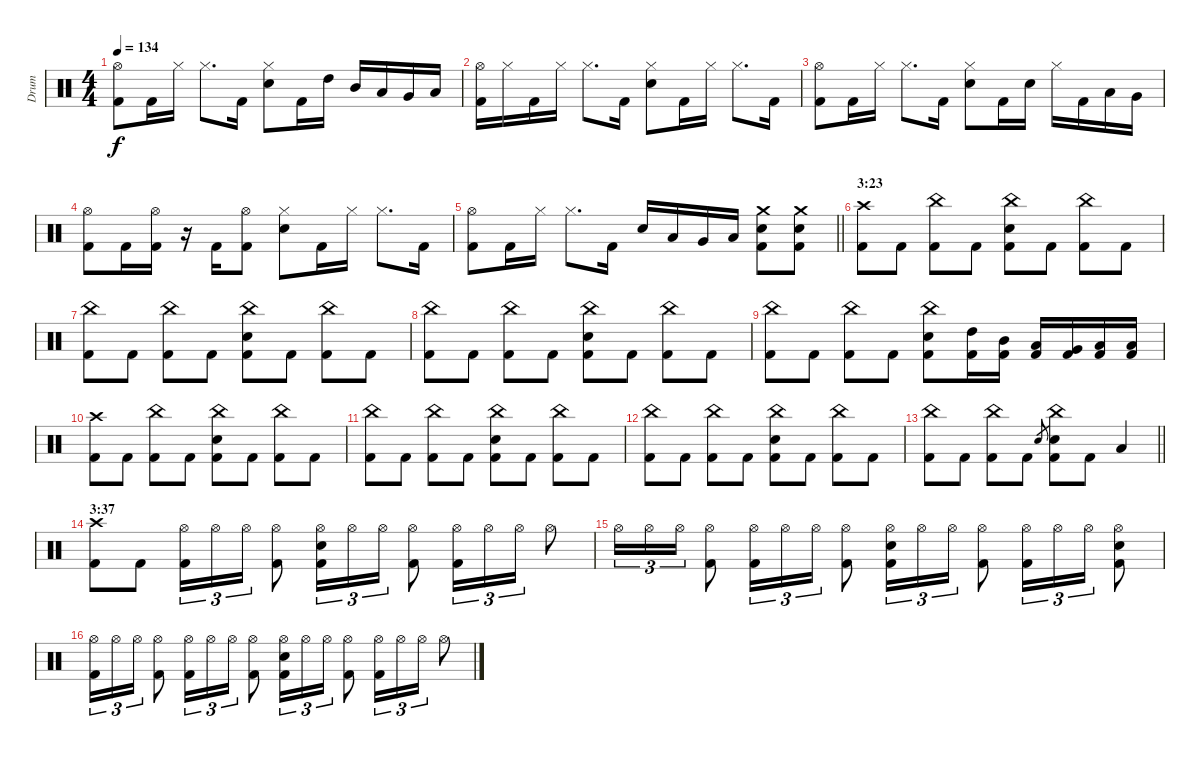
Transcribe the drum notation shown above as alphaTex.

\track ("Drum" "Drum") {instrument percussion}
\staff {score}
\articulation defaults
\ts (4 4)
\tempo 134
\clef neutral
\ks c
("Hi-Hat (open)" "Kick (hit) 2").8{dy f} "Kick (hit) 2".16 "Hi-Hat (closed)".16 "Hi-Hat (closed)".8{d} "Kick (hit) 2".16 ("Hi-Hat (closed)" "Electric Snare (hit)").8 "Kick (hit) 2".16 "High Tom (hit)".16 "Mid Tom (hit)".16 "Low Tom (hit)".16 "Very Low Tom (hit)".16 "Low Floor Tom (hit)".16 |
("Hi-Hat (open)" "Kick (hit) 2").16 "Hi-Hat (closed)".16 "Kick (hit) 2".16 "Hi-Hat (closed)".16 "Hi-Hat (closed)".8{d} "Kick (hit) 2".16 ("Hi-Hat (closed)" "Electric Snare (hit)").8 "Kick (hit) 2".16 "Hi-Hat (closed)".16 "Hi-Hat (closed)".8{d} "Kick (hit) 2".16 |
("Hi-Hat (open)" "Kick (hit) 2").8 "Kick (hit) 2".16 "Hi-Hat (closed)".16 "Hi-Hat (closed)".8{d} "Kick (hit) 2".16 ("Hi-Hat (closed)" "Electric Snare (hit)").8 "Kick (hit) 2".16 "Electric Snare (hit)".16 "Hi-Hat (closed)".16 "Kick (hit) 2".16 "Low Tom (hit)".16 "Very Low Tom (hit)".16 |
("Hi-Hat (open)" "Kick (hit) 2").8 "Kick (hit) 2".16 ("Hi-Hat (open)" "Kick (hit) 2").16 r.16 "Kick (hit) 2".16 ("Hi-Hat (open)" "Kick (hit) 2").8 ("Hi-Hat (closed)" "Electric Snare (hit)").8 "Kick (hit) 2".16 "Hi-Hat (closed)".16 "Hi-Hat (closed)".8{d} "Kick (hit) 2".16 |
\barLineRight lightlight
("Hi-Hat (open)" "Kick (hit) 2").8 "Kick (hit) 2".16 "Hi-Hat (closed)".16 "Hi-Hat (closed)".8{d} "Kick (hit) 2".16 "Electric Snare (hit)".16{volume 11} "Low Tom (hit)".16 "Very Low Tom (hit)".16 "Low Floor Tom (hit)".16 ("Crash medium (hit)" "Electric Snare (hit)" "Kick (hit) 2").8 ("Crash medium (hit)" "Electric Snare (hit)" "Kick (hit) 2").8 |
\section ("" "3:23")
("Crash high (hit)" "Kick (hit) 2").8 "Kick (hit) 2".8 ("China (hit)" "Kick (hit) 2").8 "Kick (hit) 2".8 ("China (hit)" "Electric Snare (hit)" "Kick (hit) 2").8 "Kick (hit) 2".8 ("China (hit)" "Kick (hit) 2").8 "Kick (hit) 2".8 |
("China (hit)" "Kick (hit) 2").8 "Kick (hit) 2".8 ("China (hit)" "Kick (hit) 2").8 "Kick (hit) 2".8 ("China (hit)" "Electric Snare (hit)" "Kick (hit) 2").8 "Kick (hit) 2".8 ("China (hit)" "Kick (hit) 2").8 "Kick (hit) 2".8 |
("China (hit)" "Kick (hit) 2").8 "Kick (hit) 2".8 ("China (hit)" "Kick (hit) 2").8 "Kick (hit) 2".8 ("China (hit)" "Electric Snare (hit)" "Kick (hit) 2").8 "Kick (hit) 2".8 ("China (hit)" "Kick (hit) 2").8 "Kick (hit) 2".8 |
("China (hit)" "Kick (hit) 2").8 "Kick (hit) 2".8 ("China (hit)" "Kick (hit) 2").8 "Kick (hit) 2".8 ("China (hit)" "Electric Snare (hit)" "Kick (hit) 2").8 ("High Tom (hit)" "Kick (hit) 2").16 ("Mid Tom (hit)" "Kick (hit) 2").16 ("Low Tom (hit)" "Kick (hit) 2").16 ("Very Low Tom (hit)" "Kick (hit) 2").16 ("Low Floor Tom (hit)" "Kick (hit) 2").16 ("Low Floor Tom (hit)" "Kick (hit) 2").16 |
("Crash high (hit)" "Kick (hit) 2").8 "Kick (hit) 2".8 ("China (hit)" "Kick (hit) 2").8 "Kick (hit) 2".8 ("China (hit)" "Electric Snare (hit)" "Kick (hit) 2").8 "Kick (hit) 2".8 ("China (hit)" "Kick (hit) 2").8 "Kick (hit) 2".8 |
("China (hit)" "Kick (hit) 2").8 "Kick (hit) 2".8 ("China (hit)" "Kick (hit) 2").8 "Kick (hit) 2".8 ("China (hit)" "Electric Snare (hit)" "Kick (hit) 2").8 "Kick (hit) 2".8 ("China (hit)" "Kick (hit) 2").8 "Kick (hit) 2".8 |
("China (hit)" "Kick (hit) 2").8 "Kick (hit) 2".8 ("China (hit)" "Kick (hit) 2").8 "Kick (hit) 2".8 ("China (hit)" "Electric Snare (hit)" "Kick (hit) 2").8 "Kick (hit) 2".8 ("China (hit)" "Kick (hit) 2").8 "Kick (hit) 2".8 |
\barLineRight lightlight
("China (hit)" "Kick (hit) 2").8 "Kick (hit) 2".8 ("China (hit)" "Kick (hit) 2").8 "Kick (hit) 2".8 "Electric Snare (hit)".8{gr} ("China (hit)" "Electric Snare (hit)" "Kick (hit) 2").8 "Kick (hit) 2".8 "Low Tom (hit)".4 |
\section ("" "3:37")
("Crash high (hit)" "Kick (hit) 2").8 "Kick (hit) 2".8 ("Hi-Hat (open)" "Kick (hit) 2").16{tu (3 2)} "Hi-Hat (open)".16{tu (3 2)} "Hi-Hat (open)".16{tu (3 2)} ("Hi-Hat (open)" "Kick (hit) 2").8 ("Hi-Hat (open)" "Electric Snare (hit)" "Kick (hit) 2").16{tu (3 2)} "Hi-Hat (open)".16{tu (3 2)} "Hi-Hat (open)".16{tu (3 2)} ("Hi-Hat (open)" "Kick (hit) 2").8 ("Hi-Hat (open)" "Kick (hit) 2").16{tu (3 2)} "Hi-Hat (open)".16{tu (3 2)} "Hi-Hat (open)".16{tu (3 2)} "Hi-Hat (open)".8 |
"Hi-Hat (open)".16{tu (3 2)} "Hi-Hat (open)".16{tu (3 2)} "Hi-Hat (open)".16{tu (3 2)} ("Hi-Hat (open)" "Kick (hit) 2").8 ("Hi-Hat (open)" "Kick (hit) 2").16{tu (3 2)} "Hi-Hat (open)".16{tu (3 2)} "Hi-Hat (open)".16{tu (3 2)} ("Hi-Hat (open)" "Kick (hit) 2").8 ("Hi-Hat (open)" "Electric Snare (hit)" "Kick (hit) 2").16{tu (3 2)} "Hi-Hat (open)".16{tu (3 2)} "Hi-Hat (open)".16{tu (3 2)} ("Hi-Hat (open)" "Kick (hit) 2").8 ("Hi-Hat (open)" "Kick (hit) 2").16{tu (3 2)} "Hi-Hat (open)".16{tu (3 2)} "Hi-Hat (open)".16{tu (3 2)} ("Hi-Hat (open)" "Electric Snare (hit)" "Kick (hit) 2").8 |
("Hi-Hat (open)" "Kick (hit) 2").16{tu (3 2)} "Hi-Hat (open)".16{tu (3 2)} "Hi-Hat (open)".16{tu (3 2)} ("Hi-Hat (open)" "Kick (hit) 2").8 ("Hi-Hat (open)" "Kick (hit) 2").16{tu (3 2)} "Hi-Hat (open)".16{tu (3 2)} "Hi-Hat (open)".16{tu (3 2)} ("Hi-Hat (open)" "Kick (hit) 2").8 ("Hi-Hat (open)" "Electric Snare (hit)" "Kick (hit) 2").16{tu (3 2)} "Hi-Hat (open)".16{tu (3 2)} "Hi-Hat (open)".16{tu (3 2)} ("Hi-Hat (open)" "Kick (hit) 2").8 ("Hi-Hat (open)" "Kick (hit) 2").16{tu (3 2)} "Hi-Hat (open)".16{tu (3 2)} "Hi-Hat (open)".16{tu (3 2)} "Hi-Hat (open)".8
